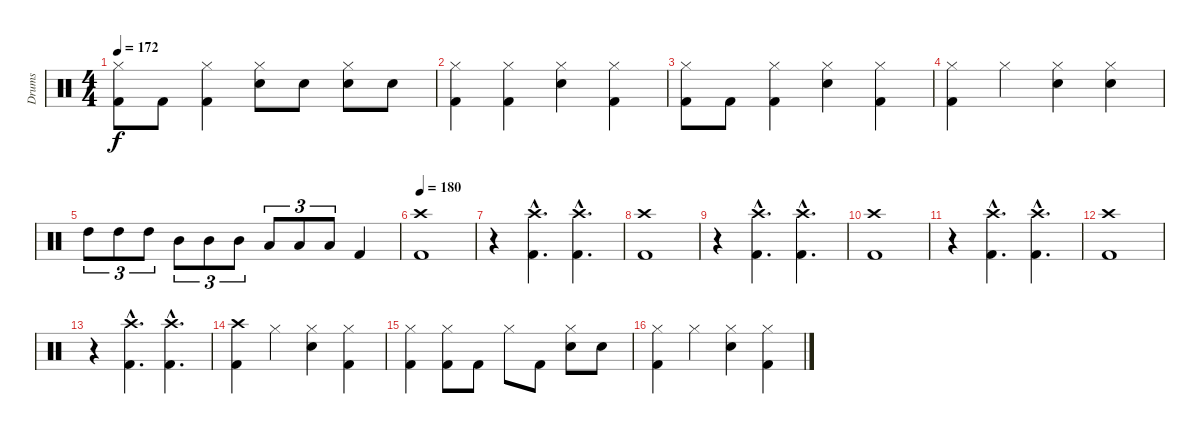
\track ("Drums" "Drums") {instrument percussion}
\staff {score}
\articulation defaults
\ts (4 4)
\tempo 172
\clef neutral
\ks c
("Hi-Hat (closed)" "Kick (hit) 2").8{dy f} "Kick (hit) 2".8 ("Hi-Hat (closed)" "Kick (hit) 2").4 ("Hi-Hat (closed)" "Snare (hit) 2").8 "Snare (hit) 2".8 ("Hi-Hat (closed)" "Snare (hit) 2").8 "Snare (hit) 2".8 |
("Hi-Hat (closed)" "Kick (hit) 2").4 ("Hi-Hat (closed)" "Kick (hit) 2").4 ("Hi-Hat (closed)" "Snare (hit) 2").4 ("Hi-Hat (closed)" "Kick (hit) 2").4 |
("Hi-Hat (closed)" "Kick (hit) 2").8 "Kick (hit) 2".8 ("Hi-Hat (closed)" "Kick (hit) 2").4 ("Hi-Hat (closed)" "Snare (hit) 2").4 ("Hi-Hat (closed)" "Kick (hit) 2").4 |
("Hi-Hat (closed)" "Kick (hit) 2").4 "Hi-Hat (closed)".4 ("Hi-Hat (closed)" "Snare (hit) 2").4 ("Hi-Hat (closed)" "Snare (hit) 2").4 |
"High Tom (hit)".8{tu (3 2)} "High Tom (hit)".8{tu (3 2)} "High Tom (hit)".8{tu (3 2)} "Mid Tom (hit)".8{tu (3 2)} "Mid Tom (hit)".8{tu (3 2)} "Mid Tom (hit)".8{tu (3 2)} "Low Tom (hit)".8{tu (3 2)} "Low Tom (hit)".8{tu (3 2)} "Low Tom (hit)".8{tu (3 2)} "Kick (hit) 2".4 |
\tempo 180
("Crash high (hit)" "Kick (hit) 2").1 |
r.4 ("Crash high (hit)"{hac} "Kick (hit) 2"{hac}).4{d} ("Crash high (hit)"{hac} "Kick (hit) 2"{hac}).4{d} |
("Crash high (hit)" "Kick (hit) 2").1 |
r.4 ("Crash high (hit)"{hac} "Kick (hit) 2"{hac}).4{d} ("Crash high (hit)"{hac} "Kick (hit) 2"{hac}).4{d} |
("Crash high (hit)" "Kick (hit) 2").1 |
r.4 ("Crash high (hit)"{hac} "Kick (hit) 2"{hac}).4{d} ("Crash high (hit)"{hac} "Kick (hit) 2"{hac}).4{d} |
("Crash high (hit)" "Kick (hit) 2").1 |
r.4 ("Crash high (hit)"{hac} "Kick (hit) 2"{hac}).4{d} ("Crash high (hit)"{hac} "Kick (hit) 2"{hac}).4{d} |
("Crash high (hit)" "Kick (hit) 2").4 "Hi-Hat (closed)".4 ("Hi-Hat (closed)" "Snare (hit) 2").4 ("Hi-Hat (closed)" "Kick (hit) 2").4 |
("Hi-Hat (closed)" "Kick (hit) 2").4 ("Hi-Hat (closed)" "Kick (hit) 2").8 "Kick (hit) 2".8 "Hi-Hat (closed)".8 "Kick (hit) 2".8 ("Hi-Hat (closed)" "Snare (hit) 2").8 "Snare (hit) 2".8 |
("Hi-Hat (closed)" "Kick (hit) 2").4 "Hi-Hat (closed)".4 ("Hi-Hat (closed)" "Snare (hit) 2").4 ("Hi-Hat (closed)" "Kick (hit) 2").4
